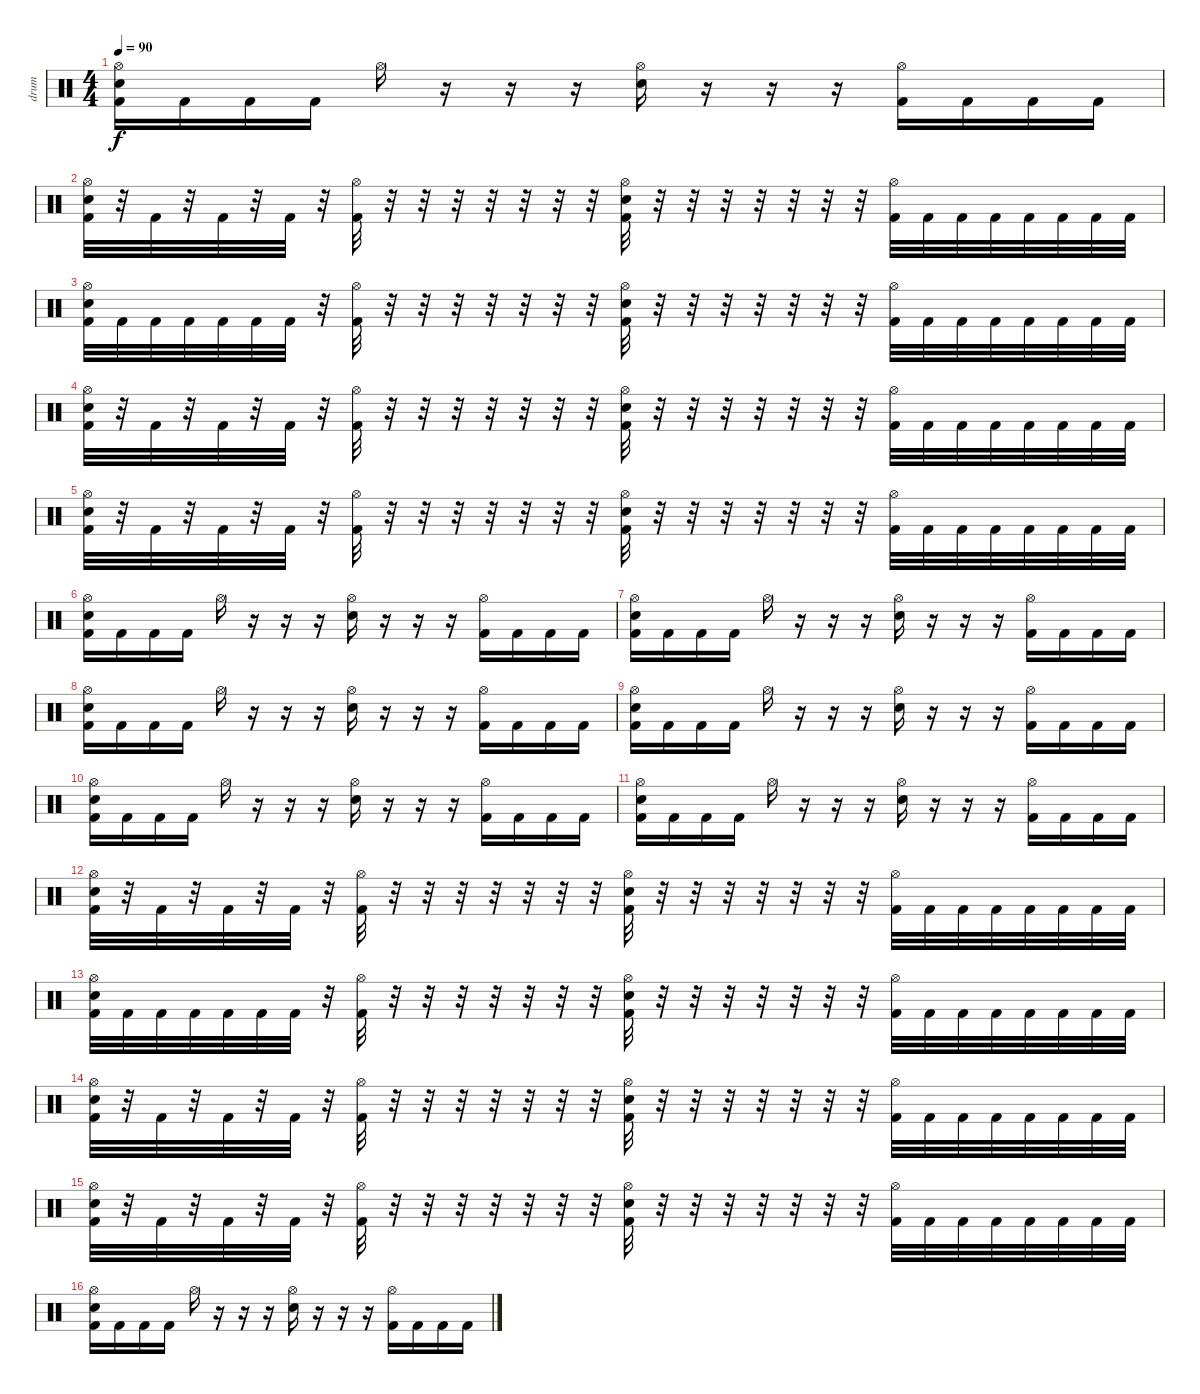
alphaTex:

\track ("drum" "drum") {instrument percussion}
\staff {score}
\articulation defaults
\ts (4 4)
\tempo 90
\clef neutral
\ks c
("Hi-Hat (open)" "Electric Snare (hit)" "Kick (hit) 2").16{dy f} "Kick (hit) 2".16 "Kick (hit) 2".16 "Kick (hit) 2".16 "Hi-Hat (open)".16 r.16 r.16 r.16 ("Hi-Hat (open)" "Electric Snare (hit)").16 r.16 r.16 r.16 ("Hi-Hat (open)" "Kick (hit) 2").16 "Kick (hit) 2".16 "Kick (hit) 2".16 "Kick (hit) 2".16 |
("Hi-Hat (open)" "Electric Snare (hit)" "Kick (hit) 2").32 r.32 "Kick (hit) 2".32 r.32 "Kick (hit) 2".32 r.32 "Kick (hit) 2".32 r.32 ("Hi-Hat (open)" "Kick (hit) 2").32 r.32 r.32 r.32 r.32 r.32 r.32 r.32 ("Hi-Hat (open)" "Electric Snare (hit)" "Kick (hit) 2").32 r.32 r.32 r.32 r.32 r.32 r.32 r.32 ("Hi-Hat (open)" "Kick (hit) 2").32 "Kick (hit) 2".32 "Kick (hit) 2".32 "Kick (hit) 2".32 "Kick (hit) 2".32 "Kick (hit) 2".32 "Kick (hit) 2".32 "Kick (hit) 2".32 |
("Hi-Hat (open)" "Electric Snare (hit)" "Kick (hit) 2").32 "Kick (hit) 2".32 "Kick (hit) 2".32 "Kick (hit) 2".32 "Kick (hit) 2".32 "Kick (hit) 2".32 "Kick (hit) 2".32 r.32 ("Hi-Hat (open)" "Kick (hit) 2").32 r.32 r.32 r.32 r.32 r.32 r.32 r.32 ("Hi-Hat (open)" "Electric Snare (hit)" "Kick (hit) 2").32 r.32 r.32 r.32 r.32 r.32 r.32 r.32 ("Hi-Hat (open)" "Kick (hit) 2").32 "Kick (hit) 2".32 "Kick (hit) 2".32 "Kick (hit) 2".32 "Kick (hit) 2".32 "Kick (hit) 2".32 "Kick (hit) 2".32 "Kick (hit) 2".32 |
("Hi-Hat (open)" "Electric Snare (hit)" "Kick (hit) 2").32 r.32 "Kick (hit) 2".32 r.32 "Kick (hit) 2".32 r.32 "Kick (hit) 2".32 r.32 ("Hi-Hat (open)" "Kick (hit) 2").32 r.32 r.32 r.32 r.32 r.32 r.32 r.32 ("Hi-Hat (open)" "Electric Snare (hit)" "Kick (hit) 2").32 r.32 r.32 r.32 r.32 r.32 r.32 r.32 ("Hi-Hat (open)" "Kick (hit) 2").32 "Kick (hit) 2".32 "Kick (hit) 2".32 "Kick (hit) 2".32 "Kick (hit) 2".32 "Kick (hit) 2".32 "Kick (hit) 2".32 "Kick (hit) 2".32 |
("Hi-Hat (open)" "Electric Snare (hit)" "Kick (hit) 2").32 r.32 "Kick (hit) 2".32 r.32 "Kick (hit) 2".32 r.32 "Kick (hit) 2".32 r.32 ("Hi-Hat (open)" "Kick (hit) 2").32 r.32 r.32 r.32 r.32 r.32 r.32 r.32 ("Hi-Hat (open)" "Electric Snare (hit)" "Kick (hit) 2").32 r.32 r.32 r.32 r.32 r.32 r.32 r.32 ("Hi-Hat (open)" "Kick (hit) 2").32 "Kick (hit) 2".32 "Kick (hit) 2".32 "Kick (hit) 2".32 "Kick (hit) 2".32 "Kick (hit) 2".32 "Kick (hit) 2".32 "Kick (hit) 2".32 |
("Hi-Hat (open)" "Electric Snare (hit)" "Kick (hit) 2").16 "Kick (hit) 2".16 "Kick (hit) 2".16 "Kick (hit) 2".16 "Hi-Hat (open)".16 r.16 r.16 r.16 ("Hi-Hat (open)" "Electric Snare (hit)").16 r.16 r.16 r.16 ("Hi-Hat (open)" "Kick (hit) 2").16 "Kick (hit) 2".16 "Kick (hit) 2".16 "Kick (hit) 2".16 |
("Hi-Hat (open)" "Electric Snare (hit)" "Kick (hit) 2").16 "Kick (hit) 2".16 "Kick (hit) 2".16 "Kick (hit) 2".16 "Hi-Hat (open)".16 r.16 r.16 r.16 ("Hi-Hat (open)" "Electric Snare (hit)").16 r.16 r.16 r.16 ("Hi-Hat (open)" "Kick (hit) 2").16 "Kick (hit) 2".16 "Kick (hit) 2".16 "Kick (hit) 2".16 |
("Hi-Hat (open)" "Electric Snare (hit)" "Kick (hit) 2").16 "Kick (hit) 2".16 "Kick (hit) 2".16 "Kick (hit) 2".16 "Hi-Hat (open)".16 r.16 r.16 r.16 ("Hi-Hat (open)" "Electric Snare (hit)").16 r.16 r.16 r.16 ("Hi-Hat (open)" "Kick (hit) 2").16 "Kick (hit) 2".16 "Kick (hit) 2".16 "Kick (hit) 2".16 |
("Hi-Hat (open)" "Electric Snare (hit)" "Kick (hit) 2").16 "Kick (hit) 2".16 "Kick (hit) 2".16 "Kick (hit) 2".16 "Hi-Hat (open)".16 r.16 r.16 r.16 ("Hi-Hat (open)" "Electric Snare (hit)").16 r.16 r.16 r.16 ("Hi-Hat (open)" "Kick (hit) 2").16 "Kick (hit) 2".16 "Kick (hit) 2".16 "Kick (hit) 2".16 |
("Hi-Hat (open)" "Electric Snare (hit)" "Kick (hit) 2").16 "Kick (hit) 2".16 "Kick (hit) 2".16 "Kick (hit) 2".16 "Hi-Hat (open)".16 r.16 r.16 r.16 ("Hi-Hat (open)" "Electric Snare (hit)").16 r.16 r.16 r.16 ("Hi-Hat (open)" "Kick (hit) 2").16 "Kick (hit) 2".16 "Kick (hit) 2".16 "Kick (hit) 2".16 |
("Hi-Hat (open)" "Electric Snare (hit)" "Kick (hit) 2").16 "Kick (hit) 2".16 "Kick (hit) 2".16 "Kick (hit) 2".16 "Hi-Hat (open)".16 r.16 r.16 r.16 ("Hi-Hat (open)" "Electric Snare (hit)").16 r.16 r.16 r.16 ("Hi-Hat (open)" "Kick (hit) 2").16 "Kick (hit) 2".16 "Kick (hit) 2".16 "Kick (hit) 2".16 |
("Hi-Hat (open)" "Electric Snare (hit)" "Kick (hit) 2").32 r.32 "Kick (hit) 2".32 r.32 "Kick (hit) 2".32 r.32 "Kick (hit) 2".32 r.32 ("Hi-Hat (open)" "Kick (hit) 2").32 r.32 r.32 r.32 r.32 r.32 r.32 r.32 ("Hi-Hat (open)" "Electric Snare (hit)" "Kick (hit) 2").32 r.32 r.32 r.32 r.32 r.32 r.32 r.32 ("Hi-Hat (open)" "Kick (hit) 2").32 "Kick (hit) 2".32 "Kick (hit) 2".32 "Kick (hit) 2".32 "Kick (hit) 2".32 "Kick (hit) 2".32 "Kick (hit) 2".32 "Kick (hit) 2".32 |
("Hi-Hat (open)" "Electric Snare (hit)" "Kick (hit) 2").32 "Kick (hit) 2".32 "Kick (hit) 2".32 "Kick (hit) 2".32 "Kick (hit) 2".32 "Kick (hit) 2".32 "Kick (hit) 2".32 r.32 ("Hi-Hat (open)" "Kick (hit) 2").32 r.32 r.32 r.32 r.32 r.32 r.32 r.32 ("Hi-Hat (open)" "Electric Snare (hit)" "Kick (hit) 2").32 r.32 r.32 r.32 r.32 r.32 r.32 r.32 ("Hi-Hat (open)" "Kick (hit) 2").32 "Kick (hit) 2".32 "Kick (hit) 2".32 "Kick (hit) 2".32 "Kick (hit) 2".32 "Kick (hit) 2".32 "Kick (hit) 2".32 "Kick (hit) 2".32 |
("Hi-Hat (open)" "Electric Snare (hit)" "Kick (hit) 2").32 r.32 "Kick (hit) 2".32 r.32 "Kick (hit) 2".32 r.32 "Kick (hit) 2".32 r.32 ("Hi-Hat (open)" "Kick (hit) 2").32 r.32 r.32 r.32 r.32 r.32 r.32 r.32 ("Hi-Hat (open)" "Electric Snare (hit)" "Kick (hit) 2").32 r.32 r.32 r.32 r.32 r.32 r.32 r.32 ("Hi-Hat (open)" "Kick (hit) 2").32 "Kick (hit) 2".32 "Kick (hit) 2".32 "Kick (hit) 2".32 "Kick (hit) 2".32 "Kick (hit) 2".32 "Kick (hit) 2".32 "Kick (hit) 2".32 |
("Hi-Hat (open)" "Electric Snare (hit)" "Kick (hit) 2").32 r.32 "Kick (hit) 2".32 r.32 "Kick (hit) 2".32 r.32 "Kick (hit) 2".32 r.32 ("Hi-Hat (open)" "Kick (hit) 2").32 r.32 r.32 r.32 r.32 r.32 r.32 r.32 ("Hi-Hat (open)" "Electric Snare (hit)" "Kick (hit) 2").32 r.32 r.32 r.32 r.32 r.32 r.32 r.32 ("Hi-Hat (open)" "Kick (hit) 2").32 "Kick (hit) 2".32 "Kick (hit) 2".32 "Kick (hit) 2".32 "Kick (hit) 2".32 "Kick (hit) 2".32 "Kick (hit) 2".32 "Kick (hit) 2".32 |
("Hi-Hat (open)" "Electric Snare (hit)" "Kick (hit) 2").16 "Kick (hit) 2".16 "Kick (hit) 2".16 "Kick (hit) 2".16 "Hi-Hat (open)".16 r.16 r.16 r.16 ("Hi-Hat (open)" "Electric Snare (hit)").16 r.16 r.16 r.16 ("Hi-Hat (open)" "Kick (hit) 2").16 "Kick (hit) 2".16 "Kick (hit) 2".16 "Kick (hit) 2".16
